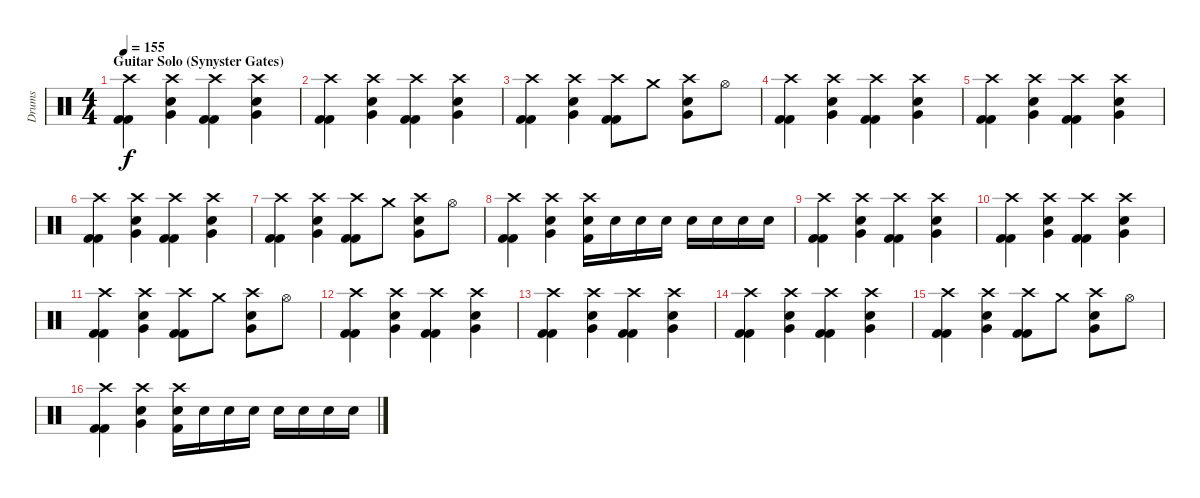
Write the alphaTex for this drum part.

\track ("Drums" "Drums") {instrument percussion}
\staff {score}
\articulation defaults
\ts (4 4)
\section ("" "Guitar Solo (Synyster Gates)")
\tempo 155
\clef neutral
\ks c
("Crash high (hit)" "Kick (hit) 2" "Kick (hit) 2").4{dy f} ("Crash high (hit)" "Very Low Tom (hit)" "Electric Snare (hit)").4 ("Crash high (hit)" "Kick (hit) 2" "Kick (hit) 2").4 ("Crash high (hit)" "Very Low Tom (hit)" "Electric Snare (hit)").4 |
("Crash high (hit)" "Kick (hit) 2" "Kick (hit) 2").4 ("Crash high (hit)" "Very Low Tom (hit)" "Electric Snare (hit)").4 ("Crash high (hit)" "Kick (hit) 2" "Kick (hit) 2").4 ("Crash high (hit)" "Very Low Tom (hit)" "Electric Snare (hit)").4 |
("Crash high (hit)" "Kick (hit) 2" "Kick (hit) 2").4 ("Crash high (hit)" "Very Low Tom (hit)" "Electric Snare (hit)").4 ("Crash high (hit)" "Kick (hit) 2" "Kick (hit) 2").8 "Crash medium (hit)".8 ("Crash high (hit)" "Very Low Tom (hit)" "Electric Snare (hit)").8 "Hi-Hat (open)".8 |
("Crash high (hit)" "Kick (hit) 2" "Kick (hit) 2").4 ("Crash high (hit)" "Very Low Tom (hit)" "Electric Snare (hit)").4 ("Crash high (hit)" "Kick (hit) 2" "Kick (hit) 2").4 ("Crash high (hit)" "Very Low Tom (hit)" "Electric Snare (hit)").4 |
("Crash high (hit)" "Kick (hit) 2" "Kick (hit) 2").4 ("Crash high (hit)" "Very Low Tom (hit)" "Electric Snare (hit)").4 ("Crash high (hit)" "Kick (hit) 2" "Kick (hit) 2").4 ("Crash high (hit)" "Very Low Tom (hit)" "Electric Snare (hit)").4 |
("Crash high (hit)" "Kick (hit) 2" "Kick (hit) 2").4 ("Crash high (hit)" "Very Low Tom (hit)" "Electric Snare (hit)").4 ("Crash high (hit)" "Kick (hit) 2" "Kick (hit) 2").4 ("Crash high (hit)" "Very Low Tom (hit)" "Electric Snare (hit)").4 |
("Crash high (hit)" "Kick (hit) 2" "Kick (hit) 2").4 ("Crash high (hit)" "Very Low Tom (hit)" "Electric Snare (hit)").4 ("Crash high (hit)" "Kick (hit) 2" "Kick (hit) 2").8 "Crash medium (hit)".8 ("Crash high (hit)" "Very Low Tom (hit)" "Electric Snare (hit)").8 "Hi-Hat (open)".8 |
("Crash high (hit)" "Kick (hit) 2" "Kick (hit) 2").4 ("Crash high (hit)" "Very Low Tom (hit)" "Electric Snare (hit)").4 ("Crash high (hit)" "Electric Snare (hit)" "Kick (hit) 2").16 "Electric Snare (hit)".16 "Electric Snare (hit)".16 "Electric Snare (hit)".16 "Electric Snare (hit)".16 "Electric Snare (hit)".16 "Electric Snare (hit)".16 "Electric Snare (hit)".16 |
("Crash high (hit)" "Kick (hit) 2" "Kick (hit) 2").4 ("Crash high (hit)" "Very Low Tom (hit)" "Electric Snare (hit)").4 ("Crash high (hit)" "Kick (hit) 2" "Kick (hit) 2").4 ("Crash high (hit)" "Very Low Tom (hit)" "Electric Snare (hit)").4 |
("Crash high (hit)" "Kick (hit) 2" "Kick (hit) 2").4 ("Crash high (hit)" "Very Low Tom (hit)" "Electric Snare (hit)").4 ("Crash high (hit)" "Kick (hit) 2" "Kick (hit) 2").4 ("Crash high (hit)" "Very Low Tom (hit)" "Electric Snare (hit)").4 |
("Crash high (hit)" "Kick (hit) 2" "Kick (hit) 2").4 ("Crash high (hit)" "Very Low Tom (hit)" "Electric Snare (hit)").4 ("Crash high (hit)" "Kick (hit) 2" "Kick (hit) 2").8 "Crash medium (hit)".8 ("Crash high (hit)" "Very Low Tom (hit)" "Electric Snare (hit)").8 "Hi-Hat (open)".8 |
("Crash high (hit)" "Kick (hit) 2" "Kick (hit) 2").4 ("Crash high (hit)" "Very Low Tom (hit)" "Electric Snare (hit)").4 ("Crash high (hit)" "Kick (hit) 2" "Kick (hit) 2").4 ("Crash high (hit)" "Very Low Tom (hit)" "Electric Snare (hit)").4 |
("Crash high (hit)" "Kick (hit) 2" "Kick (hit) 2").4 ("Crash high (hit)" "Very Low Tom (hit)" "Electric Snare (hit)").4 ("Crash high (hit)" "Kick (hit) 2" "Kick (hit) 2").4 ("Crash high (hit)" "Very Low Tom (hit)" "Electric Snare (hit)").4 |
("Crash high (hit)" "Kick (hit) 2" "Kick (hit) 2").4 ("Crash high (hit)" "Very Low Tom (hit)" "Electric Snare (hit)").4 ("Crash high (hit)" "Kick (hit) 2" "Kick (hit) 2").4 ("Crash high (hit)" "Very Low Tom (hit)" "Electric Snare (hit)").4 |
("Crash high (hit)" "Kick (hit) 2" "Kick (hit) 2").4 ("Crash high (hit)" "Very Low Tom (hit)" "Electric Snare (hit)").4 ("Crash high (hit)" "Kick (hit) 2" "Kick (hit) 2").8 "Crash medium (hit)".8 ("Crash high (hit)" "Very Low Tom (hit)" "Electric Snare (hit)").8 "Hi-Hat (open)".8 |
("Crash high (hit)" "Kick (hit) 2" "Kick (hit) 2").4 ("Crash high (hit)" "Very Low Tom (hit)" "Electric Snare (hit)").4 ("Crash high (hit)" "Electric Snare (hit)" "Kick (hit) 2").16 "Electric Snare (hit)".16 "Electric Snare (hit)".16 "Electric Snare (hit)".16 "Electric Snare (hit)".16 "Electric Snare (hit)".16 "Electric Snare (hit)".16 "Electric Snare (hit)".16
